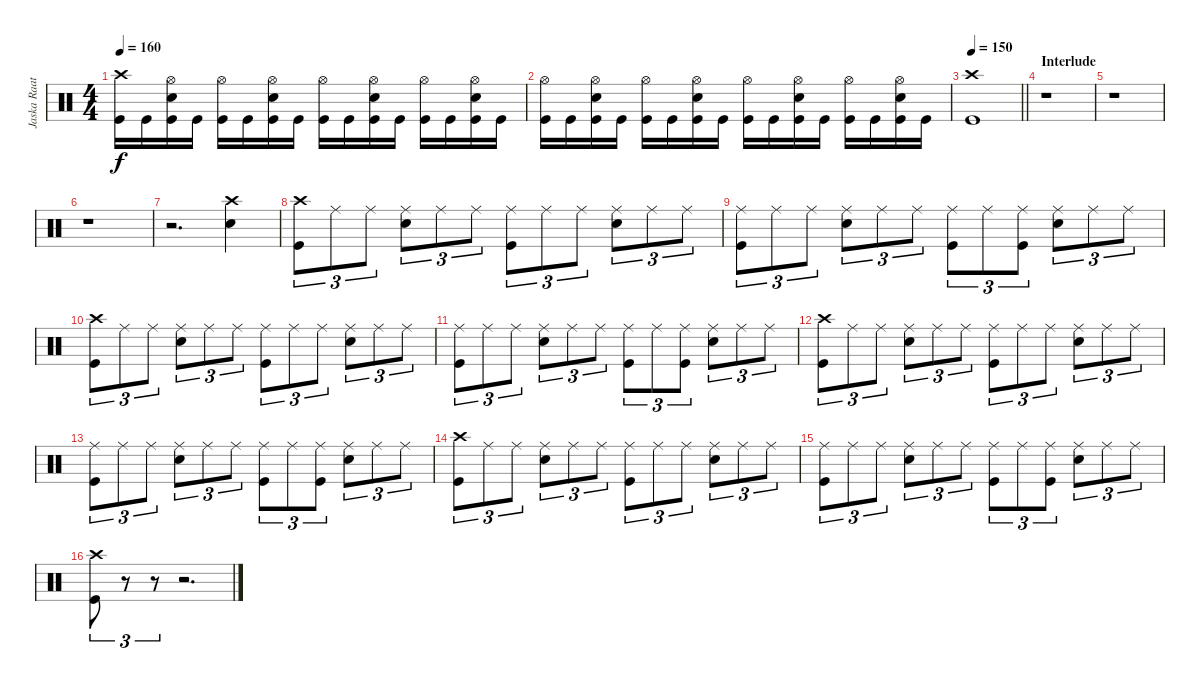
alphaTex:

\track ("Jaska Raatikainen" "Jaska Raat") {instrument percussion}
\staff {score}
\articulation defaults
\ts (4 4)
\tempo 160
\clef neutral
\ks c
("Crash high (hit)" "Kick (hit)").16{dy f} "Kick (hit)".16 ("Hi-Hat (open)" "Electric Snare (hit)" "Kick (hit)").16 "Kick (hit)".16 ("Hi-Hat (open)" "Kick (hit)").16 "Kick (hit)".16 ("Hi-Hat (open)" "Electric Snare (hit)" "Kick (hit)").16 "Kick (hit)".16 ("Hi-Hat (open)" "Kick (hit)").16 "Kick (hit)".16 ("Hi-Hat (open)" "Electric Snare (hit)" "Kick (hit)").16 "Kick (hit)".16 ("Hi-Hat (open)" "Kick (hit)").16 "Kick (hit)".16 ("Hi-Hat (open)" "Electric Snare (hit)" "Kick (hit)").16 "Kick (hit)".16 |
("Hi-Hat (open)" "Kick (hit)").16 "Kick (hit)".16 ("Hi-Hat (open)" "Electric Snare (hit)" "Kick (hit)").16 "Kick (hit)".16 ("Hi-Hat (open)" "Kick (hit)").16 "Kick (hit)".16 ("Hi-Hat (open)" "Electric Snare (hit)" "Kick (hit)").16 "Kick (hit)".16 ("Hi-Hat (open)" "Kick (hit)").16 "Kick (hit)".16 ("Hi-Hat (open)" "Electric Snare (hit)" "Kick (hit)").16 "Kick (hit)".16 ("Hi-Hat (open)" "Kick (hit)").16 "Kick (hit)".16 ("Hi-Hat (open)" "Electric Snare (hit)" "Kick (hit)").16 "Kick (hit)".16 |
\tempo 150
\barLineRight lightlight
("Crash high (hit)" "Kick (hit)").1 |
\section ("" "Interlude")
r.1 |
r.1 |
r.1 |
r.2{d} ("Crash high (hit)" "Electric Snare (hit)").4 |
("Crash high (hit)" "Kick (hit)").8{tu (3 2)} "Ride (middle)".8{tu (3 2)} "Ride (middle)".8{tu (3 2)} ("Ride (middle)" "Electric Snare (hit)").8{tu (3 2)} "Ride (middle)".8{tu (3 2)} "Ride (middle)".8{tu (3 2)} ("Ride (middle)" "Kick (hit)").8{tu (3 2)} "Ride (middle)".8{tu (3 2)} "Ride (middle)".8{tu (3 2)} ("Ride (middle)" "Electric Snare (hit)").8{tu (3 2)} "Ride (middle)".8{tu (3 2)} "Ride (middle)".8{tu (3 2)} |
("Ride (middle)" "Kick (hit)").8{tu (3 2)} "Ride (middle)".8{tu (3 2)} "Ride (middle)".8{tu (3 2)} ("Ride (middle)" "Electric Snare (hit)").8{tu (3 2)} "Ride (middle)".8{tu (3 2)} "Ride (middle)".8{tu (3 2)} ("Ride (middle)" "Kick (hit)").8{tu (3 2)} "Ride (middle)".8{tu (3 2)} ("Ride (middle)" "Kick (hit)").8{tu (3 2)} ("Ride (middle)" "Electric Snare (hit)").8{tu (3 2)} "Ride (middle)".8{tu (3 2)} "Ride (middle)".8{tu (3 2)} |
("Crash high (hit)" "Kick (hit)").8{tu (3 2)} "Ride (middle)".8{tu (3 2)} "Ride (middle)".8{tu (3 2)} ("Ride (middle)" "Electric Snare (hit)").8{tu (3 2)} "Ride (middle)".8{tu (3 2)} "Ride (middle)".8{tu (3 2)} ("Ride (middle)" "Kick (hit)").8{tu (3 2)} "Ride (middle)".8{tu (3 2)} "Ride (middle)".8{tu (3 2)} ("Ride (middle)" "Electric Snare (hit)").8{tu (3 2)} "Ride (middle)".8{tu (3 2)} "Ride (middle)".8{tu (3 2)} |
("Ride (middle)" "Kick (hit)").8{tu (3 2)} "Ride (middle)".8{tu (3 2)} "Ride (middle)".8{tu (3 2)} ("Ride (middle)" "Electric Snare (hit)").8{tu (3 2)} "Ride (middle)".8{tu (3 2)} "Ride (middle)".8{tu (3 2)} ("Ride (middle)" "Kick (hit)").8{tu (3 2)} "Ride (middle)".8{tu (3 2)} ("Ride (middle)" "Kick (hit)").8{tu (3 2)} ("Ride (middle)" "Electric Snare (hit)").8{tu (3 2)} "Ride (middle)".8{tu (3 2)} "Ride (middle)".8{tu (3 2)} |
("Crash high (hit)" "Kick (hit)").8{tu (3 2)} "Ride (middle)".8{tu (3 2)} "Ride (middle)".8{tu (3 2)} ("Ride (middle)" "Electric Snare (hit)").8{tu (3 2)} "Ride (middle)".8{tu (3 2)} "Ride (middle)".8{tu (3 2)} ("Ride (middle)" "Kick (hit)").8{tu (3 2)} "Ride (middle)".8{tu (3 2)} "Ride (middle)".8{tu (3 2)} ("Ride (middle)" "Electric Snare (hit)").8{tu (3 2)} "Ride (middle)".8{tu (3 2)} "Ride (middle)".8{tu (3 2)} |
("Ride (middle)" "Kick (hit)").8{tu (3 2)} "Ride (middle)".8{tu (3 2)} "Ride (middle)".8{tu (3 2)} ("Ride (middle)" "Electric Snare (hit)").8{tu (3 2)} "Ride (middle)".8{tu (3 2)} "Ride (middle)".8{tu (3 2)} ("Ride (middle)" "Kick (hit)").8{tu (3 2)} "Ride (middle)".8{tu (3 2)} ("Ride (middle)" "Kick (hit)").8{tu (3 2)} ("Ride (middle)" "Electric Snare (hit)").8{tu (3 2)} "Ride (middle)".8{tu (3 2)} "Ride (middle)".8{tu (3 2)} |
("Crash high (hit)" "Kick (hit)").8{tu (3 2)} "Ride (middle)".8{tu (3 2)} "Ride (middle)".8{tu (3 2)} ("Ride (middle)" "Electric Snare (hit)").8{tu (3 2)} "Ride (middle)".8{tu (3 2)} "Ride (middle)".8{tu (3 2)} ("Ride (middle)" "Kick (hit)").8{tu (3 2)} "Ride (middle)".8{tu (3 2)} "Ride (middle)".8{tu (3 2)} ("Ride (middle)" "Electric Snare (hit)").8{tu (3 2)} "Ride (middle)".8{tu (3 2)} "Ride (middle)".8{tu (3 2)} |
("Ride (middle)" "Kick (hit)").8{tu (3 2)} "Ride (middle)".8{tu (3 2)} "Ride (middle)".8{tu (3 2)} ("Ride (middle)" "Electric Snare (hit)").8{tu (3 2)} "Ride (middle)".8{tu (3 2)} "Ride (middle)".8{tu (3 2)} ("Ride (middle)" "Kick (hit)").8{tu (3 2)} "Ride (middle)".8{tu (3 2)} ("Ride (middle)" "Kick (hit)").8{tu (3 2)} ("Ride (middle)" "Electric Snare (hit)").8{tu (3 2)} "Ride (middle)".8{tu (3 2)} "Ride (middle)".8{tu (3 2)} |
("Crash high (hit)" "Kick (hit)").8{tu (3 2)} r.8{tu (3 2)} r.8{tu (3 2)} r.2{d}
